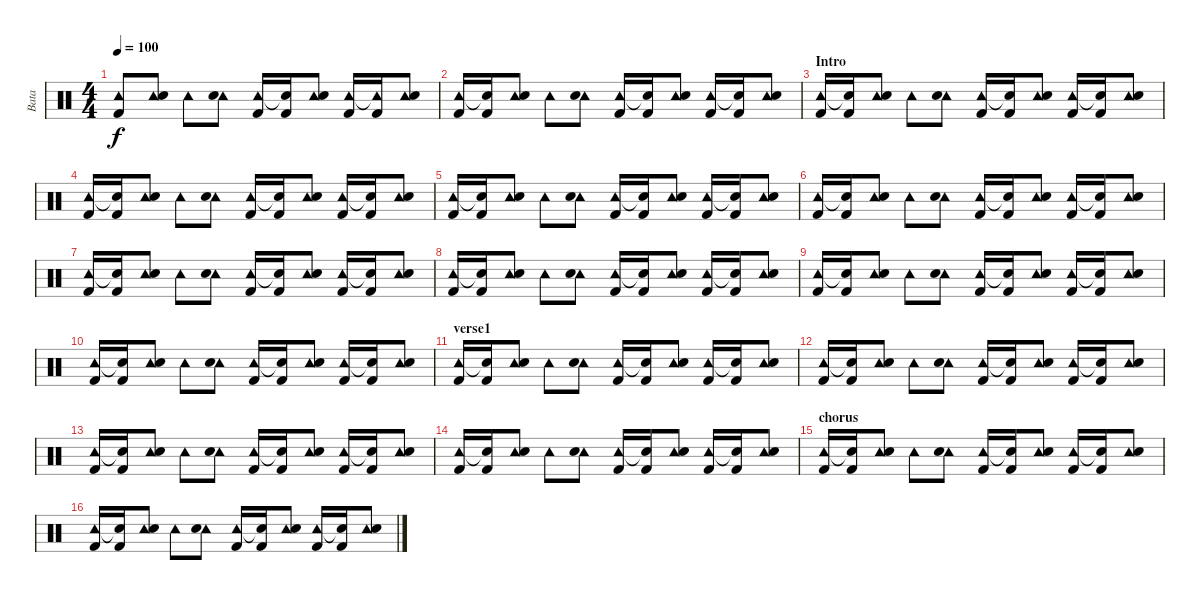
\track ("Bata" "Bata") {instrument percussion}
\staff {score}
\articulation defaults
\ts (4 4)
\tempo 100
\clef neutral
\ks c
("Tambourine (hit)" "Kick (hit) 2").8{dy f} ("Tambourine (hit)" "Snare (hit) 2").8 "Tambourine (hit)".8 ("Tambourine (hit)" "Snare (hit) 2").8 ("Tambourine (hit)" "Kick (hit) 2").16 ("Snare (hit)"{t} "Kick (hit) 2").16 ("Tambourine (hit)" "Snare (hit) 2").8 ("Tambourine (hit)" "Kick (hit) 2").16 ("Tambourine (hit)"{t} "Kick (hit) 2").16 ("Tambourine (hit)" "Snare (hit) 2").8 |
("Tambourine (hit)" "Kick (hit) 2").16 ("Snare (hit)"{t} "Kick (hit) 2").16 ("Tambourine (hit)" "Snare (hit) 2").8 "Tambourine (hit)".8 ("Tambourine (hit)" "Snare (hit) 2").8 ("Tambourine (hit)" "Kick (hit) 2").16 ("Snare (hit)"{t} "Kick (hit) 2").16 ("Tambourine (hit)" "Snare (hit) 2").8 ("Tambourine (hit)" "Kick (hit) 2").16 ("Snare (hit)"{t} "Kick (hit) 2").16 ("Tambourine (hit)" "Snare (hit) 2").8 |
\section ("" "Intro")
("Tambourine (hit)" "Kick (hit) 2").16 ("Snare (hit)"{t} "Kick (hit) 2").16 ("Tambourine (hit)" "Snare (hit) 2").8 "Tambourine (hit)".8 ("Tambourine (hit)" "Snare (hit) 2").8 ("Tambourine (hit)" "Kick (hit) 2").16 ("Snare (hit)"{t} "Kick (hit) 2").16 ("Tambourine (hit)" "Snare (hit) 2").8 ("Tambourine (hit)" "Kick (hit) 2").16 ("Snare (hit)"{t} "Kick (hit) 2").16 ("Tambourine (hit)" "Snare (hit) 2").8 |
("Tambourine (hit)" "Kick (hit) 2").16 ("Snare (hit)"{t} "Kick (hit) 2").16 ("Tambourine (hit)" "Snare (hit) 2").8 "Tambourine (hit)".8 ("Tambourine (hit)" "Snare (hit) 2").8 ("Tambourine (hit)" "Kick (hit) 2").16 ("Snare (hit)"{t} "Kick (hit) 2").16 ("Tambourine (hit)" "Snare (hit) 2").8 ("Tambourine (hit)" "Kick (hit) 2").16 ("Snare (hit)"{t} "Kick (hit) 2").16 ("Tambourine (hit)" "Snare (hit) 2").8 |
("Tambourine (hit)" "Kick (hit) 2").16 ("Snare (hit)"{t} "Kick (hit) 2").16 ("Tambourine (hit)" "Snare (hit) 2").8 "Tambourine (hit)".8 ("Tambourine (hit)" "Snare (hit) 2").8 ("Tambourine (hit)" "Kick (hit) 2").16 ("Snare (hit)"{t} "Kick (hit) 2").16 ("Tambourine (hit)" "Snare (hit) 2").8 ("Tambourine (hit)" "Kick (hit) 2").16 ("Snare (hit)"{t} "Kick (hit) 2").16 ("Tambourine (hit)" "Snare (hit) 2").8 |
("Tambourine (hit)" "Kick (hit) 2").16 ("Snare (hit)"{t} "Kick (hit) 2").16 ("Tambourine (hit)" "Snare (hit) 2").8 "Tambourine (hit)".8 ("Tambourine (hit)" "Snare (hit) 2").8 ("Tambourine (hit)" "Kick (hit) 2").16 ("Snare (hit)"{t} "Kick (hit) 2").16 ("Tambourine (hit)" "Snare (hit) 2").8 ("Tambourine (hit)" "Kick (hit) 2").16 ("Snare (hit)"{t} "Kick (hit) 2").16 ("Tambourine (hit)" "Snare (hit) 2").8 |
("Tambourine (hit)" "Kick (hit) 2").16 ("Snare (hit)"{t} "Kick (hit) 2").16 ("Tambourine (hit)" "Snare (hit) 2").8 "Tambourine (hit)".8 ("Tambourine (hit)" "Snare (hit) 2").8 ("Tambourine (hit)" "Kick (hit) 2").16 ("Snare (hit)"{t} "Kick (hit) 2").16 ("Tambourine (hit)" "Snare (hit) 2").8 ("Tambourine (hit)" "Kick (hit) 2").16 ("Snare (hit)"{t} "Kick (hit) 2").16 ("Tambourine (hit)" "Snare (hit) 2").8 |
("Tambourine (hit)" "Kick (hit) 2").16 ("Snare (hit)"{t} "Kick (hit) 2").16 ("Tambourine (hit)" "Snare (hit) 2").8 "Tambourine (hit)".8 ("Tambourine (hit)" "Snare (hit) 2").8 ("Tambourine (hit)" "Kick (hit) 2").16 ("Snare (hit)"{t} "Kick (hit) 2").16 ("Tambourine (hit)" "Snare (hit) 2").8 ("Tambourine (hit)" "Kick (hit) 2").16 ("Snare (hit)"{t} "Kick (hit) 2").16 ("Tambourine (hit)" "Snare (hit) 2").8 |
("Tambourine (hit)" "Kick (hit) 2").16 ("Snare (hit)"{t} "Kick (hit) 2").16 ("Tambourine (hit)" "Snare (hit) 2").8 "Tambourine (hit)".8 ("Tambourine (hit)" "Snare (hit) 2").8 ("Tambourine (hit)" "Kick (hit) 2").16 ("Snare (hit)"{t} "Kick (hit) 2").16 ("Tambourine (hit)" "Snare (hit) 2").8 ("Tambourine (hit)" "Kick (hit) 2").16 ("Snare (hit)"{t} "Kick (hit) 2").16 ("Tambourine (hit)" "Snare (hit) 2").8 |
("Tambourine (hit)" "Kick (hit) 2").16 ("Snare (hit)"{t} "Kick (hit) 2").16 ("Tambourine (hit)" "Snare (hit) 2").8 "Tambourine (hit)".8 ("Tambourine (hit)" "Snare (hit) 2").8 ("Tambourine (hit)" "Kick (hit) 2").16 ("Snare (hit)"{t} "Kick (hit) 2").16 ("Tambourine (hit)" "Snare (hit) 2").8 ("Tambourine (hit)" "Kick (hit) 2").16 ("Snare (hit)"{t} "Kick (hit) 2").16 ("Tambourine (hit)" "Snare (hit) 2").8 |
\section ("" "verse1")
("Tambourine (hit)" "Kick (hit) 2").16 ("Snare (hit)"{t} "Kick (hit) 2").16 ("Tambourine (hit)" "Snare (hit) 2").8 "Tambourine (hit)".8 ("Tambourine (hit)" "Snare (hit) 2").8 ("Tambourine (hit)" "Kick (hit) 2").16 ("Snare (hit)"{t} "Kick (hit) 2").16 ("Tambourine (hit)" "Snare (hit) 2").8 ("Tambourine (hit)" "Kick (hit) 2").16 ("Snare (hit)"{t} "Kick (hit) 2").16 ("Tambourine (hit)" "Snare (hit) 2").8 |
("Tambourine (hit)" "Kick (hit) 2").16 ("Snare (hit)"{t} "Kick (hit) 2").16 ("Tambourine (hit)" "Snare (hit) 2").8 "Tambourine (hit)".8 ("Tambourine (hit)" "Snare (hit) 2").8 ("Tambourine (hit)" "Kick (hit) 2").16 ("Snare (hit)"{t} "Kick (hit) 2").16 ("Tambourine (hit)" "Snare (hit) 2").8 ("Tambourine (hit)" "Kick (hit) 2").16 ("Snare (hit)"{t} "Kick (hit) 2").16 ("Tambourine (hit)" "Snare (hit) 2").8 |
("Tambourine (hit)" "Kick (hit) 2").16 ("Snare (hit)"{t} "Kick (hit) 2").16 ("Tambourine (hit)" "Snare (hit) 2").8 "Tambourine (hit)".8 ("Tambourine (hit)" "Snare (hit) 2").8 ("Tambourine (hit)" "Kick (hit) 2").16 ("Snare (hit)"{t} "Kick (hit) 2").16 ("Tambourine (hit)" "Snare (hit) 2").8 ("Tambourine (hit)" "Kick (hit) 2").16 ("Snare (hit)"{t} "Kick (hit) 2").16 ("Tambourine (hit)" "Snare (hit) 2").8 |
("Tambourine (hit)" "Kick (hit) 2").16 ("Snare (hit)"{t} "Kick (hit) 2").16 ("Tambourine (hit)" "Snare (hit) 2").8 "Tambourine (hit)".8 ("Tambourine (hit)" "Snare (hit) 2").8 ("Tambourine (hit)" "Kick (hit) 2").16 ("Snare (hit)"{t} "Kick (hit) 2").16 ("Tambourine (hit)" "Snare (hit) 2").8 ("Tambourine (hit)" "Kick (hit) 2").16 ("Snare (hit)"{t} "Kick (hit) 2").16 ("Tambourine (hit)" "Snare (hit) 2").8 |
\section ("" "chorus")
("Tambourine (hit)" "Kick (hit) 2").16 ("Snare (hit)"{t} "Kick (hit) 2").16 ("Tambourine (hit)" "Snare (hit) 2").8 "Tambourine (hit)".8 ("Tambourine (hit)" "Snare (hit) 2").8 ("Tambourine (hit)" "Kick (hit) 2").16 ("Snare (hit)"{t} "Kick (hit) 2").16 ("Tambourine (hit)" "Snare (hit) 2").8 ("Tambourine (hit)" "Kick (hit) 2").16 ("Snare (hit)"{t} "Kick (hit) 2").16 ("Tambourine (hit)" "Snare (hit) 2").8 |
("Tambourine (hit)" "Kick (hit) 2").16 ("Snare (hit)"{t} "Kick (hit) 2").16 ("Tambourine (hit)" "Snare (hit) 2").8 "Tambourine (hit)".8 ("Tambourine (hit)" "Snare (hit) 2").8 ("Tambourine (hit)" "Kick (hit) 2").16 ("Snare (hit)"{t} "Kick (hit) 2").16 ("Tambourine (hit)" "Snare (hit) 2").8 ("Tambourine (hit)" "Kick (hit) 2").16 ("Snare (hit)"{t} "Kick (hit) 2").16 ("Tambourine (hit)" "Snare (hit) 2").8
